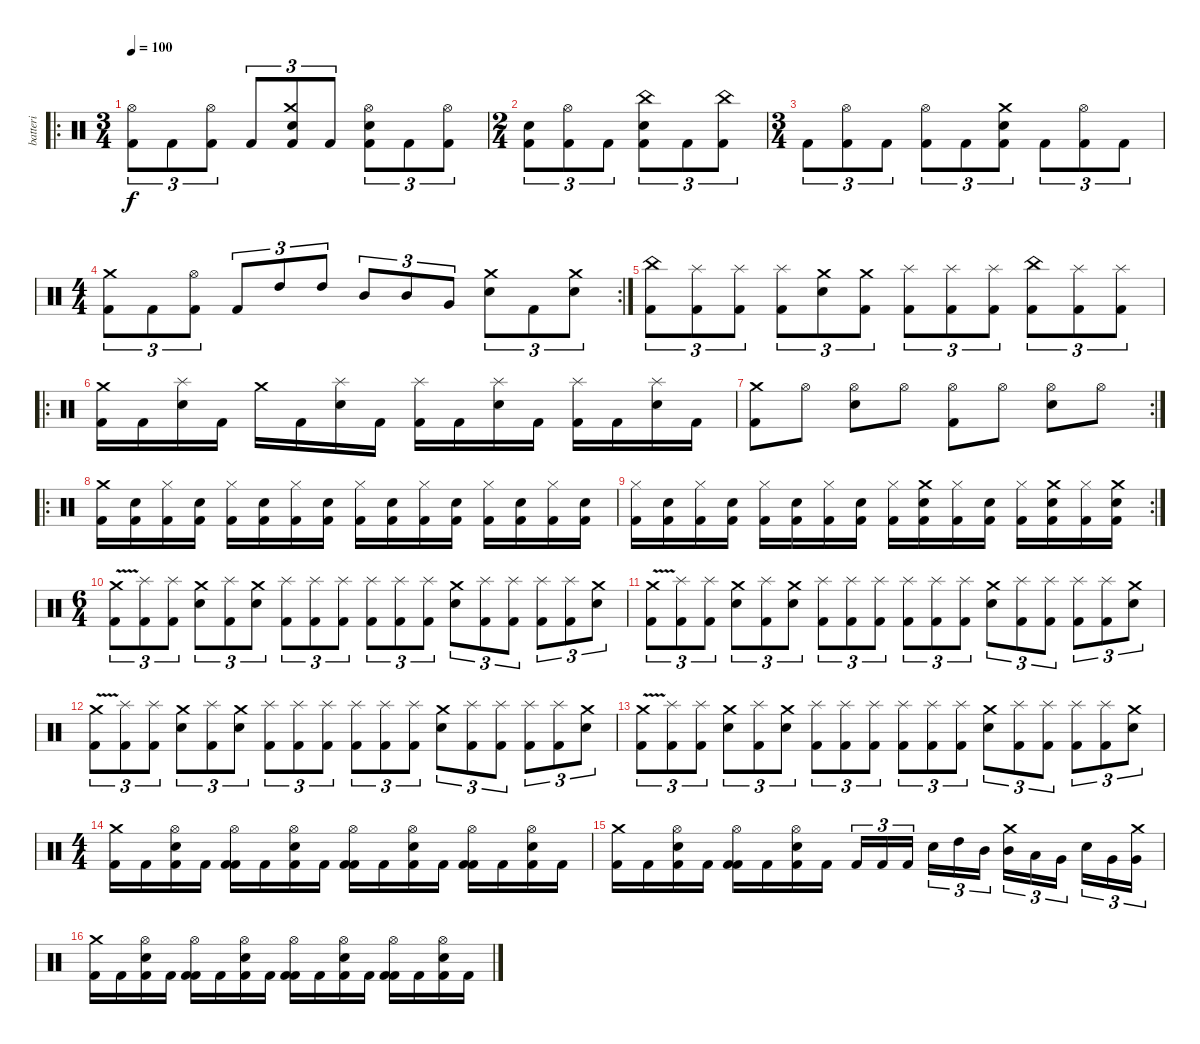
\track ("batteri" "batteri") {instrument percussion}
\staff {score}
\articulation defaults
\ro
\ts (3 4)
\tempo 100
\clef neutral
\ks c
("Hi-Hat (open)" "Kick (hit) 2").8{tu (3 2) dy f} "Kick (hit) 2".8{tu (3 2)} ("Hi-Hat (open)" "Kick (hit) 2").8{tu (3 2)} "Kick (hit) 2".8{tu (3 2)} ("Crash medium (hit)" "Electric Snare (hit)" "Kick (hit) 2").8{tu (3 2)} "Kick (hit) 2".8{tu (3 2)} ("Snare (hit)" "Hi-Hat (open)" "Kick (hit) 2").8{tu (3 2)} "Kick (hit) 2".8{tu (3 2)} ("Hi-Hat (open)" "Kick (hit) 2").8{tu (3 2)} |
\ts (2 4)
("Snare (hit)" "Kick (hit) 2").8{tu (3 2)} ("Hi-Hat (open)" "Kick (hit) 2").8{tu (3 2)} "Kick (hit) 2".8{tu (3 2)} ("China (hit)" "Electric Snare (hit)" "Kick (hit) 2").8{tu (3 2)} "Kick (hit) 2".8{tu (3 2)} ("China (hit)" "Kick (hit) 2").8{tu (3 2)} |
\ts (3 4)
"Kick (hit) 2".8{tu (3 2)} ("Hi-Hat (open)" "Kick (hit) 2").8{tu (3 2)} "Kick (hit) 2".8{tu (3 2)} ("Hi-Hat (open)" "Kick (hit) 2").8{tu (3 2)} "Kick (hit) 2".8{tu (3 2)} ("Crash medium (hit)" "Electric Snare (hit)" "Kick (hit) 2").8{tu (3 2)} "Kick (hit) 2".8{tu (3 2)} ("Hi-Hat (open)" "Kick (hit) 2").8{tu (3 2)} "Kick (hit) 2".8{tu (3 2)} |
\rc 2
\ts (4 4)
("Crash medium (hit)" "Kick (hit) 2").8{tu (3 2)} "Kick (hit) 2".8{tu (3 2)} ("Hi-Hat (open)" "Kick (hit) 2").8{tu (3 2)} "Kick (hit) 2".8{tu (3 2)} "High Tom (hit)".8{tu (3 2)} "High Tom (hit)".8{tu (3 2)} "Mid Tom (hit)".8{tu (3 2)} "Mid Tom (hit)".8{tu (3 2)} "Very Low Tom (hit)".8{tu (3 2)} ("Crash medium (hit)" "Electric Snare (hit)").8{tu (3 2)} "Kick (hit) 2".8{tu (3 2)} ("Crash medium (hit)" "Electric Snare (hit)").8{tu (3 2)} |
("China (hit)" "Kick (hit) 2").8{tu (3 2)} ("Splash (hit)" "Kick (hit) 2").8{tu (3 2)} ("Splash (hit)" "Kick (hit) 2").8{tu (3 2)} ("Splash (hit)" "Kick (hit) 2").8{tu (3 2)} ("Crash medium (hit)" "Electric Snare (hit)").8{tu (3 2)} ("Crash medium (hit)" "Kick (hit) 2").8{tu (3 2)} ("Splash (hit)" "Kick (hit) 2").8{tu (3 2)} ("Splash (hit)" "Kick (hit) 2").8{tu (3 2)} ("Splash (hit)" "Kick (hit) 2").8{tu (3 2)} ("China (hit)" "Kick (hit) 2").8{tu (3 2)} ("Splash (hit)" "Kick (hit) 2").8{tu (3 2)} ("Splash (hit)" "Kick (hit) 2").8{tu (3 2)} |
\ro
("Crash medium (hit)" "Kick (hit) 2").16 "Kick (hit) 2".16 ("Splash (hit)" "Electric Snare (hit)").16 "Kick (hit) 2".16 "Crash medium (hit)".16 "Kick (hit) 2".16 ("Splash (hit)" "Electric Snare (hit)").16 "Kick (hit) 2".16 ("Splash (hit)" "Kick (hit) 2").16 "Kick (hit) 2".16 ("Splash (hit)" "Electric Snare (hit)").16 "Kick (hit) 2".16 ("Splash (hit)" "Kick (hit) 2").16 "Kick (hit) 2".16 ("Splash (hit)" "Electric Snare (hit)").16 "Kick (hit) 2".16 |
\rc 2
("Crash medium (hit)" "Kick (hit) 2").8 "Hi-Hat (open)".8 ("Hi-Hat (open)" "Electric Snare (hit)").8 "Hi-Hat (open)".8 ("Hi-Hat (open)" "Kick (hit) 2").8 "Hi-Hat (open)".8 ("Hi-Hat (open)" "Electric Snare (hit)").8 "Hi-Hat (open)".8 |
\ro
("Crash medium (hit)" "Kick (hit) 2").16 ("Electric Snare (hit)" "Kick (hit) 2").16 ("Hi-Hat (closed)" "Kick (hit) 2").16 ("Electric Snare (hit)" "Kick (hit) 2").16 ("Hi-Hat (closed)" "Kick (hit) 2").16 ("Electric Snare (hit)" "Kick (hit) 2").16 ("Hi-Hat (closed)" "Kick (hit) 2").16 ("Electric Snare (hit)" "Kick (hit) 2").16 ("Hi-Hat (closed)" "Kick (hit) 2").16 ("Electric Snare (hit)" "Kick (hit) 2").16 ("Hi-Hat (closed)" "Kick (hit) 2").16 ("Electric Snare (hit)" "Kick (hit) 2").16 ("Hi-Hat (closed)" "Kick (hit) 2").16 ("Electric Snare (hit)" "Kick (hit) 2").16 ("Hi-Hat (closed)" "Kick (hit) 2").16 ("Electric Snare (hit)" "Kick (hit) 2").16 |
\rc 2
("Hi-Hat (closed)" "Kick (hit) 2").16 ("Electric Snare (hit)" "Kick (hit) 2").16 ("Hi-Hat (closed)" "Kick (hit) 2").16 ("Electric Snare (hit)" "Kick (hit) 2").16 ("Hi-Hat (closed)" "Kick (hit) 2").16 ("Electric Snare (hit)" "Kick (hit) 2").16 ("Hi-Hat (closed)" "Kick (hit) 2").16 ("Electric Snare (hit)" "Kick (hit) 2").16 ("Hi-Hat (closed)" "Kick (hit) 2").16 ("Crash medium (hit)" "Electric Snare (hit)" "Kick (hit) 2").16 ("Hi-Hat (closed)" "Kick (hit) 2").16 ("Electric Snare (hit)" "Kick (hit) 2").16 ("Hi-Hat (closed)" "Kick (hit) 2").16 ("Crash medium (hit)" "Electric Snare (hit)" "Kick (hit) 2").16 ("Hi-Hat (closed)" "Kick (hit) 2").16 ("Crash medium (hit)" "Electric Snare (hit)" "Kick (hit) 2").16 |
\ts (6 4)
("Crash medium (hit)"{v} "Kick (hit) 2"{v}).8{tu (3 2)} ("Splash (hit)" "Kick (hit) 2").8{tu (3 2)} ("Splash (hit)" "Kick (hit) 2").8{tu (3 2)} ("Crash medium (hit)" "Electric Snare (hit)").8{tu (3 2)} ("Splash (hit)" "Kick (hit) 2").8{tu (3 2)} ("Crash medium (hit)" "Electric Snare (hit)").8{tu (3 2)} ("Splash (hit)" "Kick (hit) 2").8{tu (3 2)} ("Splash (hit)" "Kick (hit) 2").8{tu (3 2)} ("Splash (hit)" "Kick (hit) 2").8{tu (3 2)} ("Splash (hit)" "Kick (hit) 2").8{tu (3 2)} ("Splash (hit)" "Kick (hit) 2").8{tu (3 2)} ("Splash (hit)" "Kick (hit) 2").8{tu (3 2)} ("Crash medium (hit)" "Electric Snare (hit)").8{tu (3 2)} ("Splash (hit)" "Kick (hit) 2").8{tu (3 2)} ("Splash (hit)" "Kick (hit) 2").8{tu (3 2)} ("Splash (hit)" "Kick (hit) 2").8{tu (3 2)} ("Splash (hit)" "Kick (hit) 2").8{tu (3 2)} ("Crash medium (hit)" "Electric Snare (hit)").8{tu (3 2)} |
("Crash medium (hit)"{v} "Kick (hit) 2"{v}).8{tu (3 2)} ("Splash (hit)" "Kick (hit) 2").8{tu (3 2)} ("Splash (hit)" "Kick (hit) 2").8{tu (3 2)} ("Crash medium (hit)" "Electric Snare (hit)").8{tu (3 2)} ("Splash (hit)" "Kick (hit) 2").8{tu (3 2)} ("Crash medium (hit)" "Electric Snare (hit)").8{tu (3 2)} ("Splash (hit)" "Kick (hit) 2").8{tu (3 2)} ("Splash (hit)" "Kick (hit) 2").8{tu (3 2)} ("Splash (hit)" "Kick (hit) 2").8{tu (3 2)} ("Splash (hit)" "Kick (hit) 2").8{tu (3 2)} ("Splash (hit)" "Kick (hit) 2").8{tu (3 2)} ("Splash (hit)" "Kick (hit) 2").8{tu (3 2)} ("Crash medium (hit)" "Electric Snare (hit)").8{tu (3 2)} ("Splash (hit)" "Kick (hit) 2").8{tu (3 2)} ("Splash (hit)" "Kick (hit) 2").8{tu (3 2)} ("Splash (hit)" "Kick (hit) 2").8{tu (3 2)} ("Splash (hit)" "Kick (hit) 2").8{tu (3 2)} ("Crash medium (hit)" "Electric Snare (hit)").8{tu (3 2)} |
("Crash medium (hit)"{v} "Kick (hit) 2"{v}).8{tu (3 2)} ("Splash (hit)" "Kick (hit) 2").8{tu (3 2)} ("Splash (hit)" "Kick (hit) 2").8{tu (3 2)} ("Crash medium (hit)" "Electric Snare (hit)").8{tu (3 2)} ("Splash (hit)" "Kick (hit) 2").8{tu (3 2)} ("Crash medium (hit)" "Electric Snare (hit)").8{tu (3 2)} ("Splash (hit)" "Kick (hit) 2").8{tu (3 2)} ("Splash (hit)" "Kick (hit) 2").8{tu (3 2)} ("Splash (hit)" "Kick (hit) 2").8{tu (3 2)} ("Splash (hit)" "Kick (hit) 2").8{tu (3 2)} ("Splash (hit)" "Kick (hit) 2").8{tu (3 2)} ("Splash (hit)" "Kick (hit) 2").8{tu (3 2)} ("Crash medium (hit)" "Electric Snare (hit)").8{tu (3 2)} ("Splash (hit)" "Kick (hit) 2").8{tu (3 2)} ("Splash (hit)" "Kick (hit) 2").8{tu (3 2)} ("Splash (hit)" "Kick (hit) 2").8{tu (3 2)} ("Splash (hit)" "Kick (hit) 2").8{tu (3 2)} ("Crash medium (hit)" "Electric Snare (hit)").8{tu (3 2)} |
("Crash medium (hit)"{v} "Kick (hit) 2"{v}).8{tu (3 2)} ("Splash (hit)" "Kick (hit) 2").8{tu (3 2)} ("Splash (hit)" "Kick (hit) 2").8{tu (3 2)} ("Crash medium (hit)" "Electric Snare (hit)").8{tu (3 2)} ("Splash (hit)" "Kick (hit) 2").8{tu (3 2)} ("Crash medium (hit)" "Electric Snare (hit)").8{tu (3 2)} ("Splash (hit)" "Kick (hit) 2").8{tu (3 2)} ("Splash (hit)" "Kick (hit) 2").8{tu (3 2)} ("Splash (hit)" "Kick (hit) 2").8{tu (3 2)} ("Splash (hit)" "Kick (hit) 2").8{tu (3 2)} ("Splash (hit)" "Kick (hit) 2").8{tu (3 2)} ("Splash (hit)" "Kick (hit) 2").8{tu (3 2)} ("Crash medium (hit)" "Electric Snare (hit)").8{tu (3 2)} ("Splash (hit)" "Kick (hit) 2").8{tu (3 2)} ("Splash (hit)" "Kick (hit) 2").8{tu (3 2)} ("Splash (hit)" "Kick (hit) 2").8{tu (3 2)} ("Splash (hit)" "Kick (hit) 2").8{tu (3 2)} ("Crash medium (hit)" "Electric Snare (hit)").8{tu (3 2)} |
\ts (4 4)
("Crash medium (hit)" "Kick (hit) 2").16 "Kick (hit) 2".16 ("Hi-Hat (open)" "Electric Snare (hit)" "Kick (hit) 2").16 "Kick (hit) 2".16 ("Hi-Hat (open)" "Kick (hit) 2" "Kick (hit) 2").16 "Kick (hit) 2".16 ("Hi-Hat (open)" "Electric Snare (hit)" "Kick (hit) 2").16 "Kick (hit) 2".16 ("Hi-Hat (open)" "Kick (hit) 2" "Kick (hit) 2").16 "Kick (hit) 2".16 ("Hi-Hat (open)" "Electric Snare (hit)" "Kick (hit) 2").16 "Kick (hit) 2".16 ("Hi-Hat (open)" "Kick (hit) 2" "Kick (hit) 2").16 "Kick (hit) 2".16 ("Hi-Hat (open)" "Electric Snare (hit)" "Kick (hit) 2").16 "Kick (hit) 2".16 |
("Crash medium (hit)" "Kick (hit) 2").16 "Kick (hit) 2".16 ("Hi-Hat (open)" "Electric Snare (hit)" "Kick (hit) 2").16 "Kick (hit) 2".16 ("Hi-Hat (open)" "Kick (hit) 2" "Kick (hit) 2").16 "Kick (hit) 2".16 ("Hi-Hat (open)" "Electric Snare (hit)" "Kick (hit) 2").16 "Kick (hit) 2".16 "Kick (hit) 2".16{tu (3 2)} "Kick (hit) 2".16{tu (3 2)} "Kick (hit) 2".16{tu (3 2)} "Electric Snare (hit)".16{tu (3 2)} "High Tom (hit)".16{tu (3 2)} "Mid Tom (hit)".16{tu (3 2)} ("Crash medium (hit)" "Mid Tom (hit)").16{tu (3 2)} "Low Tom (hit)".16{tu (3 2)} "Very Low Tom (hit)".16{tu (3 2)} "Electric Snare (hit)".16{tu (3 2)} "Very Low Tom (hit)".16{tu (3 2)} ("Crash medium (hit)" "Very Low Tom (hit)").16{tu (3 2)} |
("Crash medium (hit)" "Kick (hit) 2").16 "Kick (hit) 2".16 ("Hi-Hat (open)" "Electric Snare (hit)" "Kick (hit) 2").16 "Kick (hit) 2".16 ("Hi-Hat (open)" "Kick (hit) 2" "Kick (hit) 2").16 "Kick (hit) 2".16 ("Hi-Hat (open)" "Electric Snare (hit)" "Kick (hit) 2").16 "Kick (hit) 2".16 ("Hi-Hat (open)" "Kick (hit) 2" "Kick (hit) 2").16 "Kick (hit) 2".16 ("Hi-Hat (open)" "Electric Snare (hit)" "Kick (hit) 2").16 "Kick (hit) 2".16 ("Hi-Hat (open)" "Kick (hit) 2" "Kick (hit) 2").16 "Kick (hit) 2".16 ("Hi-Hat (open)" "Electric Snare (hit)" "Kick (hit) 2").16 "Kick (hit) 2".16
